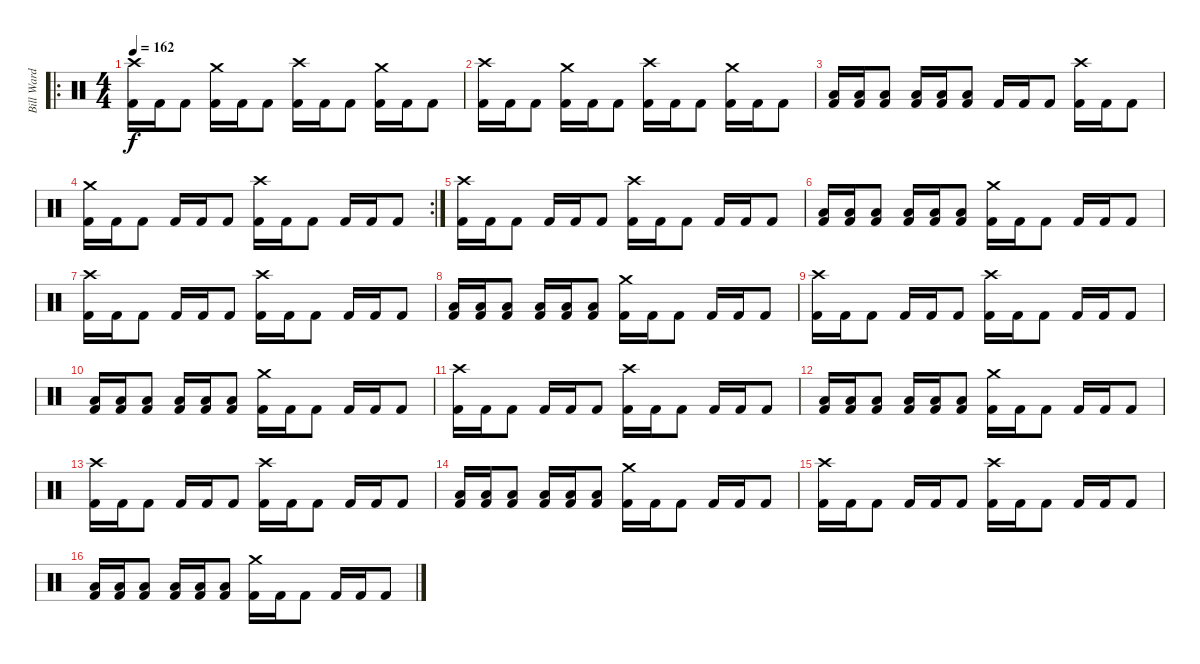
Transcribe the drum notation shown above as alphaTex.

\track ("Bill Ward" "Bill Ward") {instrument percussion}
\staff {score}
\articulation defaults
\ro
\ts (4 4)
\tempo 162
\clef neutral
\ks c
("Crash high (hit)" "Kick (hit) 2").16{dy f} "Kick (hit) 2".16 "Kick (hit) 2".8 ("Crash medium (hit)" "Kick (hit) 2").16 "Kick (hit) 2".16 "Kick (hit) 2".8 ("Crash high (hit)" "Kick (hit) 2").16 "Kick (hit) 2".16 "Kick (hit) 2".8 ("Crash medium (hit)" "Kick (hit) 2").16 "Kick (hit) 2".16 "Kick (hit) 2".8 |
("Crash high (hit)" "Kick (hit) 2").16 "Kick (hit) 2".16 "Kick (hit) 2".8 ("Crash medium (hit)" "Kick (hit) 2").16 "Kick (hit) 2".16 "Kick (hit) 2".8 ("Crash high (hit)" "Kick (hit) 2").16 "Kick (hit) 2".16 "Kick (hit) 2".8 ("Crash medium (hit)" "Kick (hit) 2").16 "Kick (hit) 2".16 "Kick (hit) 2".8 |
("Low Tom (hit)" "Kick (hit) 2").16 ("Low Tom (hit)" "Kick (hit) 2").16 ("Low Tom (hit)" "Kick (hit) 2").8 ("Low Tom (hit)" "Kick (hit) 2").16 ("Low Tom (hit)" "Kick (hit) 2").16 ("Low Tom (hit)" "Kick (hit) 2").8 "Kick (hit) 2".16 "Kick (hit) 2".16 "Kick (hit) 2".8 ("Crash high (hit)" "Kick (hit) 2").16 "Kick (hit) 2".16 "Kick (hit) 2".8 |
\rc 2
("Crash medium (hit)" "Kick (hit) 2").16 "Kick (hit) 2".16 "Kick (hit) 2".8 "Kick (hit) 2".16 "Kick (hit) 2".16 "Kick (hit) 2".8 ("Crash high (hit)" "Kick (hit) 2").16 "Kick (hit) 2".16 "Kick (hit) 2".8 "Kick (hit) 2".16 "Kick (hit) 2".16 "Kick (hit) 2".8 |
("Crash high (hit)" "Kick (hit) 2").16 "Kick (hit) 2".16 "Kick (hit) 2".8 "Kick (hit) 2".16 "Kick (hit) 2".16 "Kick (hit) 2".8 ("Crash high (hit)" "Kick (hit) 2").16 "Kick (hit) 2".16 "Kick (hit) 2".8 "Kick (hit) 2".16 "Kick (hit) 2".16 "Kick (hit) 2".8 |
("Low Tom (hit)" "Kick (hit) 2").16 ("Low Tom (hit)" "Kick (hit) 2").16 ("Low Tom (hit)" "Kick (hit) 2").8 ("Low Tom (hit)" "Kick (hit) 2").16 ("Low Tom (hit)" "Kick (hit) 2").16 ("Low Tom (hit)" "Kick (hit) 2").8 ("Crash medium (hit)" "Kick (hit) 2").16 "Kick (hit) 2".16 "Kick (hit) 2".8 "Kick (hit) 2".16 "Kick (hit) 2".16 "Kick (hit) 2".8 |
("Crash high (hit)" "Kick (hit) 2").16 "Kick (hit) 2".16 "Kick (hit) 2".8 "Kick (hit) 2".16 "Kick (hit) 2".16 "Kick (hit) 2".8 ("Crash high (hit)" "Kick (hit) 2").16 "Kick (hit) 2".16 "Kick (hit) 2".8 "Kick (hit) 2".16 "Kick (hit) 2".16 "Kick (hit) 2".8 |
("Low Tom (hit)" "Kick (hit) 2").16 ("Low Tom (hit)" "Kick (hit) 2").16 ("Low Tom (hit)" "Kick (hit) 2").8 ("Low Tom (hit)" "Kick (hit) 2").16 ("Low Tom (hit)" "Kick (hit) 2").16 ("Low Tom (hit)" "Kick (hit) 2").8 ("Crash medium (hit)" "Kick (hit) 2").16 "Kick (hit) 2".16 "Kick (hit) 2".8 "Kick (hit) 2".16 "Kick (hit) 2".16 "Kick (hit) 2".8 |
("Crash high (hit)" "Kick (hit) 2").16 "Kick (hit) 2".16 "Kick (hit) 2".8 "Kick (hit) 2".16 "Kick (hit) 2".16 "Kick (hit) 2".8 ("Crash high (hit)" "Kick (hit) 2").16 "Kick (hit) 2".16 "Kick (hit) 2".8 "Kick (hit) 2".16 "Kick (hit) 2".16 "Kick (hit) 2".8 |
("Low Tom (hit)" "Kick (hit) 2").16 ("Low Tom (hit)" "Kick (hit) 2").16 ("Low Tom (hit)" "Kick (hit) 2").8 ("Low Tom (hit)" "Kick (hit) 2").16 ("Low Tom (hit)" "Kick (hit) 2").16 ("Low Tom (hit)" "Kick (hit) 2").8 ("Crash medium (hit)" "Kick (hit) 2").16 "Kick (hit) 2".16 "Kick (hit) 2".8 "Kick (hit) 2".16 "Kick (hit) 2".16 "Kick (hit) 2".8 |
("Crash high (hit)" "Kick (hit) 2").16 "Kick (hit) 2".16 "Kick (hit) 2".8 "Kick (hit) 2".16 "Kick (hit) 2".16 "Kick (hit) 2".8 ("Crash high (hit)" "Kick (hit) 2").16 "Kick (hit) 2".16 "Kick (hit) 2".8 "Kick (hit) 2".16 "Kick (hit) 2".16 "Kick (hit) 2".8 |
("Low Tom (hit)" "Kick (hit) 2").16 ("Low Tom (hit)" "Kick (hit) 2").16 ("Low Tom (hit)" "Kick (hit) 2").8 ("Low Tom (hit)" "Kick (hit) 2").16 ("Low Tom (hit)" "Kick (hit) 2").16 ("Low Tom (hit)" "Kick (hit) 2").8 ("Crash medium (hit)" "Kick (hit) 2").16 "Kick (hit) 2".16 "Kick (hit) 2".8 "Kick (hit) 2".16 "Kick (hit) 2".16 "Kick (hit) 2".8 |
("Crash high (hit)" "Kick (hit) 2").16 "Kick (hit) 2".16 "Kick (hit) 2".8 "Kick (hit) 2".16 "Kick (hit) 2".16 "Kick (hit) 2".8 ("Crash high (hit)" "Kick (hit) 2").16 "Kick (hit) 2".16 "Kick (hit) 2".8 "Kick (hit) 2".16 "Kick (hit) 2".16 "Kick (hit) 2".8 |
("Low Tom (hit)" "Kick (hit) 2").16 ("Low Tom (hit)" "Kick (hit) 2").16 ("Low Tom (hit)" "Kick (hit) 2").8 ("Low Tom (hit)" "Kick (hit) 2").16 ("Low Tom (hit)" "Kick (hit) 2").16 ("Low Tom (hit)" "Kick (hit) 2").8 ("Crash medium (hit)" "Kick (hit) 2").16 "Kick (hit) 2".16 "Kick (hit) 2".8 "Kick (hit) 2".16 "Kick (hit) 2".16 "Kick (hit) 2".8 |
("Crash high (hit)" "Kick (hit) 2").16 "Kick (hit) 2".16 "Kick (hit) 2".8 "Kick (hit) 2".16 "Kick (hit) 2".16 "Kick (hit) 2".8 ("Crash high (hit)" "Kick (hit) 2").16 "Kick (hit) 2".16 "Kick (hit) 2".8 "Kick (hit) 2".16 "Kick (hit) 2".16 "Kick (hit) 2".8 |
("Low Tom (hit)" "Kick (hit) 2").16 ("Low Tom (hit)" "Kick (hit) 2").16 ("Low Tom (hit)" "Kick (hit) 2").8 ("Low Tom (hit)" "Kick (hit) 2").16 ("Low Tom (hit)" "Kick (hit) 2").16 ("Low Tom (hit)" "Kick (hit) 2").8 ("Crash medium (hit)" "Kick (hit) 2").16 "Kick (hit) 2".16 "Kick (hit) 2".8 "Kick (hit) 2".16 "Kick (hit) 2".16 "Kick (hit) 2".8
